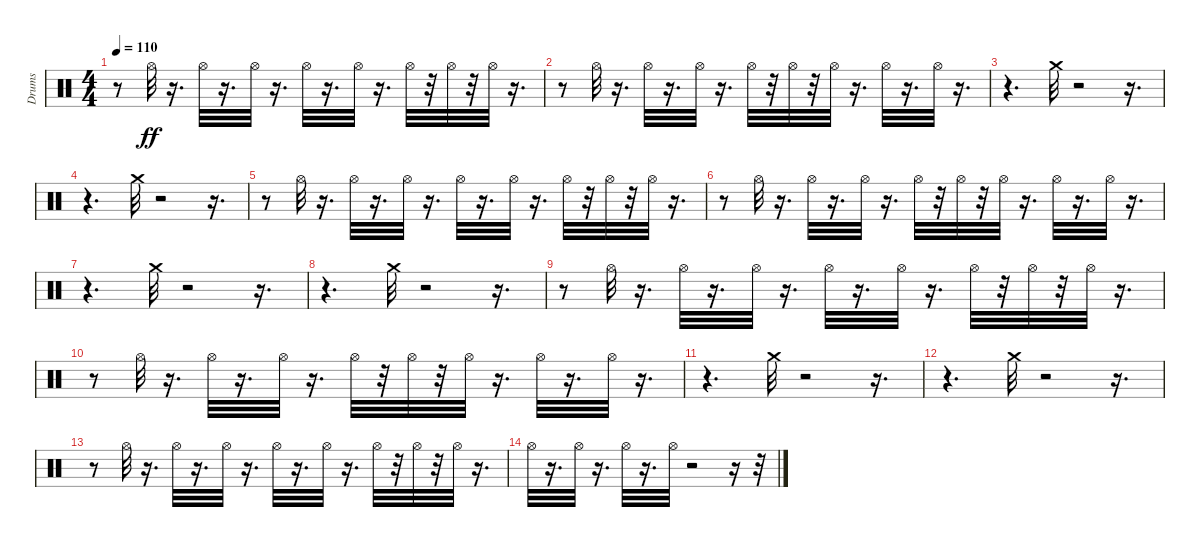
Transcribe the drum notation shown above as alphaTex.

\track ("Drums" "Drums") {instrument percussion}
\staff {score}
\articulation defaults
\ts (4 4)
\tempo 110
\clef neutral
\ks c
r.8{dy ff} "Hi-Hat (open)".32 r.16{d} "Hi-Hat (open)".32 r.16{d} "Hi-Hat (open)".32 r.16{d} "Hi-Hat (open)".32 r.16{d} "Hi-Hat (open)".32 r.16{d} "Hi-Hat (open)".32 r.32 "Hi-Hat (open)".32 r.32 "Hi-Hat (open)".32 r.16{d} |
r.8 "Hi-Hat (open)".32 r.16{d} "Hi-Hat (open)".32 r.16{d} "Hi-Hat (open)".32 r.16{d} "Hi-Hat (open)".32 r.32 "Hi-Hat (open)".32 r.32 "Hi-Hat (open)".32 r.16{d} "Hi-Hat (open)".32 r.16{d} "Hi-Hat (open)".32 r.16{d} |
r.4{d} "Crash medium (hit)".32 r.2 r.16{d} |
r.4{d} "Crash medium (hit)".32 r.2 r.16{d} |
r.8 "Hi-Hat (open)".32 r.16{d} "Hi-Hat (open)".32 r.16{d} "Hi-Hat (open)".32 r.16{d} "Hi-Hat (open)".32 r.16{d} "Hi-Hat (open)".32 r.16{d} "Hi-Hat (open)".32 r.32 "Hi-Hat (open)".32 r.32 "Hi-Hat (open)".32 r.16{d} |
r.8 "Hi-Hat (open)".32 r.16{d} "Hi-Hat (open)".32 r.16{d} "Hi-Hat (open)".32 r.16{d} "Hi-Hat (open)".32 r.32 "Hi-Hat (open)".32 r.32 "Hi-Hat (open)".32 r.16{d} "Hi-Hat (open)".32 r.16{d} "Hi-Hat (open)".32 r.16{d} |
r.4{d} "Crash medium (hit)".32 r.2 r.16{d} |
r.4{d} "Crash medium (hit)".32 r.2 r.16{d} |
r.8 "Hi-Hat (open)".32 r.16{d} "Hi-Hat (open)".32 r.16{d} "Hi-Hat (open)".32 r.16{d} "Hi-Hat (open)".32 r.16{d} "Hi-Hat (open)".32 r.16{d} "Hi-Hat (open)".32 r.32 "Hi-Hat (open)".32 r.32 "Hi-Hat (open)".32 r.16{d} |
r.8 "Hi-Hat (open)".32 r.16{d} "Hi-Hat (open)".32 r.16{d} "Hi-Hat (open)".32 r.16{d} "Hi-Hat (open)".32 r.32 "Hi-Hat (open)".32 r.32 "Hi-Hat (open)".32 r.16{d} "Hi-Hat (open)".32 r.16{d} "Hi-Hat (open)".32 r.16{d} |
r.4{d} "Crash medium (hit)".32 r.2 r.16{d} |
r.4{d} "Crash medium (hit)".32 r.2 r.16{d} |
r.8 "Hi-Hat (open)".32 r.16{d} "Hi-Hat (open)".32 r.16{d} "Hi-Hat (open)".32 r.16{d} "Hi-Hat (open)".32 r.16{d} "Hi-Hat (open)".32 r.16{d} "Hi-Hat (open)".32 r.32 "Hi-Hat (open)".32 r.32 "Hi-Hat (open)".32 r.16{d} |
"Hi-Hat (open)".32 r.16{d} "Hi-Hat (open)".32 r.16{d} "Hi-Hat (open)".32 r.16{d} "Hi-Hat (open)".32 r.2 r.16 r.32
